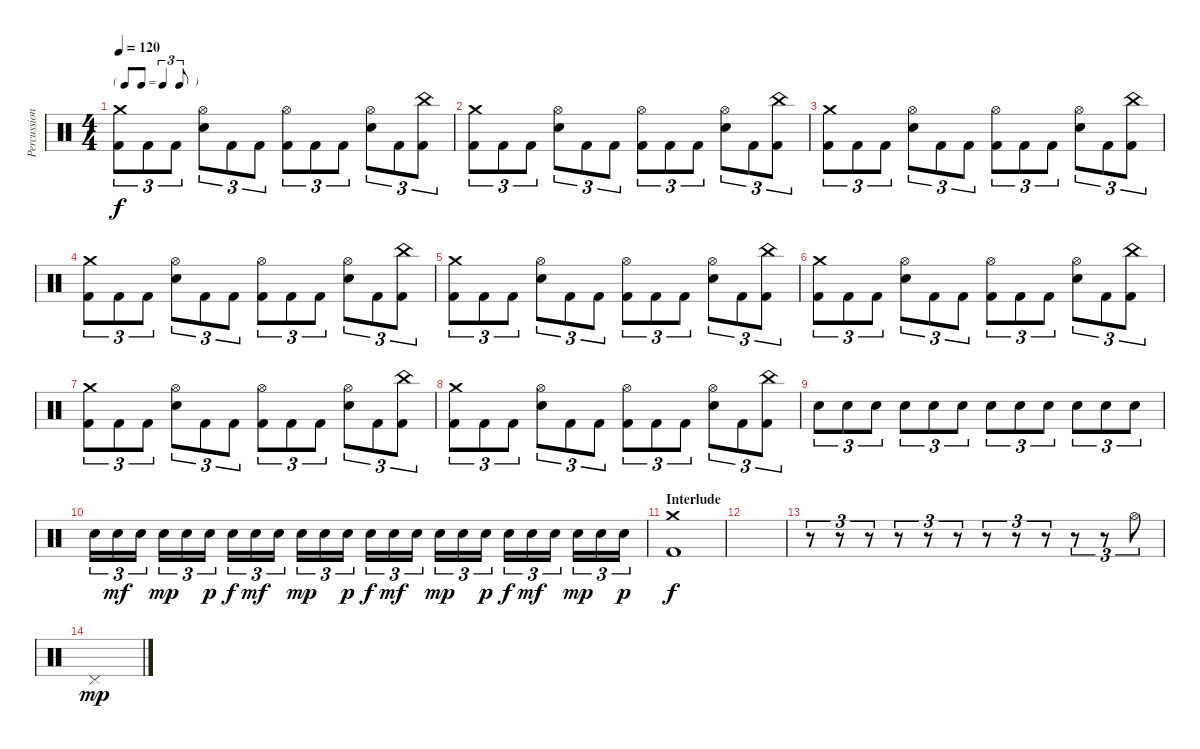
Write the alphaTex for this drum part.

\track ("Percussion" "Percussion") {instrument percussion}
\staff {score}
\articulation defaults
\ts (4 4)
\tf triplet8th
\tempo 120
\clef neutral
\ks c
("Crash medium (hit)" "Kick (hit) 2").8{tu (3 2) dy f} "Kick (hit) 2".8{tu (3 2)} "Kick (hit) 2".8{tu (3 2)} ("Hi-Hat (open)" "Electric Snare (hit)").8{tu (3 2)} "Kick (hit) 2".8{tu (3 2)} "Kick (hit) 2".8{tu (3 2)} ("Hi-Hat (open)" "Kick (hit) 2").8{tu (3 2)} "Kick (hit) 2".8{tu (3 2)} "Kick (hit) 2".8{tu (3 2)} ("Hi-Hat (open)" "Electric Snare (hit)").8{tu (3 2)} "Kick (hit) 2".8{tu (3 2)} ("China (hit)" "Kick (hit) 2").8{tu (3 2)} |
("Crash medium (hit)" "Kick (hit) 2").8{tu (3 2)} "Kick (hit) 2".8{tu (3 2)} "Kick (hit) 2".8{tu (3 2)} ("Hi-Hat (open)" "Electric Snare (hit)").8{tu (3 2)} "Kick (hit) 2".8{tu (3 2)} "Kick (hit) 2".8{tu (3 2)} ("Hi-Hat (open)" "Kick (hit) 2").8{tu (3 2)} "Kick (hit) 2".8{tu (3 2)} "Kick (hit) 2".8{tu (3 2)} ("Hi-Hat (open)" "Electric Snare (hit)").8{tu (3 2)} "Kick (hit) 2".8{tu (3 2)} ("China (hit)" "Kick (hit) 2").8{tu (3 2)} |
("Crash medium (hit)" "Kick (hit) 2").8{tu (3 2)} "Kick (hit) 2".8{tu (3 2)} "Kick (hit) 2".8{tu (3 2)} ("Hi-Hat (open)" "Electric Snare (hit)").8{tu (3 2)} "Kick (hit) 2".8{tu (3 2)} "Kick (hit) 2".8{tu (3 2)} ("Hi-Hat (open)" "Kick (hit) 2").8{tu (3 2)} "Kick (hit) 2".8{tu (3 2)} "Kick (hit) 2".8{tu (3 2)} ("Hi-Hat (open)" "Electric Snare (hit)").8{tu (3 2)} "Kick (hit) 2".8{tu (3 2)} ("China (hit)" "Kick (hit) 2").8{tu (3 2)} |
("Crash medium (hit)" "Kick (hit) 2").8{tu (3 2)} "Kick (hit) 2".8{tu (3 2)} "Kick (hit) 2".8{tu (3 2)} ("Hi-Hat (open)" "Electric Snare (hit)").8{tu (3 2)} "Kick (hit) 2".8{tu (3 2)} "Kick (hit) 2".8{tu (3 2)} ("Hi-Hat (open)" "Kick (hit) 2").8{tu (3 2)} "Kick (hit) 2".8{tu (3 2)} "Kick (hit) 2".8{tu (3 2)} ("Hi-Hat (open)" "Electric Snare (hit)").8{tu (3 2)} "Kick (hit) 2".8{tu (3 2)} ("China (hit)" "Kick (hit) 2").8{tu (3 2)} |
("Crash medium (hit)" "Kick (hit) 2").8{tu (3 2)} "Kick (hit) 2".8{tu (3 2)} "Kick (hit) 2".8{tu (3 2)} ("Hi-Hat (open)" "Electric Snare (hit)").8{tu (3 2)} "Kick (hit) 2".8{tu (3 2)} "Kick (hit) 2".8{tu (3 2)} ("Hi-Hat (open)" "Kick (hit) 2").8{tu (3 2)} "Kick (hit) 2".8{tu (3 2)} "Kick (hit) 2".8{tu (3 2)} ("Hi-Hat (open)" "Electric Snare (hit)").8{tu (3 2)} "Kick (hit) 2".8{tu (3 2)} ("China (hit)" "Kick (hit) 2").8{tu (3 2)} |
("Crash medium (hit)" "Kick (hit) 2").8{tu (3 2)} "Kick (hit) 2".8{tu (3 2)} "Kick (hit) 2".8{tu (3 2)} ("Hi-Hat (open)" "Electric Snare (hit)").8{tu (3 2)} "Kick (hit) 2".8{tu (3 2)} "Kick (hit) 2".8{tu (3 2)} ("Hi-Hat (open)" "Kick (hit) 2").8{tu (3 2)} "Kick (hit) 2".8{tu (3 2)} "Kick (hit) 2".8{tu (3 2)} ("Hi-Hat (open)" "Electric Snare (hit)").8{tu (3 2)} "Kick (hit) 2".8{tu (3 2)} ("China (hit)" "Kick (hit) 2").8{tu (3 2)} |
("Crash medium (hit)" "Kick (hit) 2").8{tu (3 2)} "Kick (hit) 2".8{tu (3 2)} "Kick (hit) 2".8{tu (3 2)} ("Hi-Hat (open)" "Electric Snare (hit)").8{tu (3 2)} "Kick (hit) 2".8{tu (3 2)} "Kick (hit) 2".8{tu (3 2)} ("Hi-Hat (open)" "Kick (hit) 2").8{tu (3 2)} "Kick (hit) 2".8{tu (3 2)} "Kick (hit) 2".8{tu (3 2)} ("Hi-Hat (open)" "Electric Snare (hit)").8{tu (3 2)} "Kick (hit) 2".8{tu (3 2)} ("China (hit)" "Kick (hit) 2").8{tu (3 2)} |
("Crash medium (hit)" "Kick (hit) 2").8{tu (3 2)} "Kick (hit) 2".8{tu (3 2)} "Kick (hit) 2".8{tu (3 2)} ("Hi-Hat (open)" "Electric Snare (hit)").8{tu (3 2)} "Kick (hit) 2".8{tu (3 2)} "Kick (hit) 2".8{tu (3 2)} ("Hi-Hat (open)" "Kick (hit) 2").8{tu (3 2)} "Kick (hit) 2".8{tu (3 2)} "Kick (hit) 2".8{tu (3 2)} ("Hi-Hat (open)" "Electric Snare (hit)").8{tu (3 2)} "Kick (hit) 2".8{tu (3 2)} ("China (hit)" "Kick (hit) 2").8{tu (3 2)} |
"Electric Snare (hit)".8{tu (3 2)} "Electric Snare (hit)".8{tu (3 2)} "Electric Snare (hit)".8{tu (3 2)} "Electric Snare (hit)".8{tu (3 2)} "Electric Snare (hit)".8{tu (3 2)} "Electric Snare (hit)".8{tu (3 2)} "Electric Snare (hit)".8{tu (3 2)} "Electric Snare (hit)".8{tu (3 2)} "Electric Snare (hit)".8{tu (3 2)} "Electric Snare (hit)".8{tu (3 2)} "Electric Snare (hit)".8{tu (3 2)} "Electric Snare (hit)".8{tu (3 2)} |
"Electric Snare (hit)".16{tu (3 2)} "Electric Snare (hit)".16{tu (3 2) dy mf} "Electric Snare (hit)".16{tu (3 2)} "Electric Snare (hit)".16{tu (3 2) dy mp} "Electric Snare (hit)".16{tu (3 2)} "Electric Snare (hit)".16{tu (3 2) dy p} "Electric Snare (hit)".16{tu (3 2) dy f} "Electric Snare (hit)".16{tu (3 2) dy mf} "Electric Snare (hit)".16{tu (3 2)} "Electric Snare (hit)".16{tu (3 2) dy mp} "Electric Snare (hit)".16{tu (3 2)} "Electric Snare (hit)".16{tu (3 2) dy p} "Electric Snare (hit)".16{tu (3 2) dy f} "Electric Snare (hit)".16{tu (3 2) dy mf} "Electric Snare (hit)".16{tu (3 2)} "Electric Snare (hit)".16{tu (3 2) dy mp} "Electric Snare (hit)".16{tu (3 2)} "Electric Snare (hit)".16{tu (3 2) dy p} "Electric Snare (hit)".16{tu (3 2) dy f} "Electric Snare (hit)".16{tu (3 2) dy mf} "Electric Snare (hit)".16{tu (3 2)} "Electric Snare (hit)".16{tu (3 2) dy mp} "Electric Snare (hit)".16{tu (3 2)} "Electric Snare (hit)".16{tu (3 2) dy p} |
\section ("" "Interlude")
("Crash medium (hit)" "Kick (hit) 2").1{dy f} |
|
r.8{tu (3 2)} r.8{tu (3 2)} r.8{tu (3 2)} r.8{tu (3 2)} r.8{tu (3 2)} r.8{tu (3 2)} r.8{tu (3 2)} r.8{tu (3 2)} r.8{tu (3 2)} r.8{tu (3 2)} r.8{tu (3 2)} "Hi-Hat (open)".8{tu (3 2)} |
"Pedal Hi-Hat (hit)".1{dy mp}
